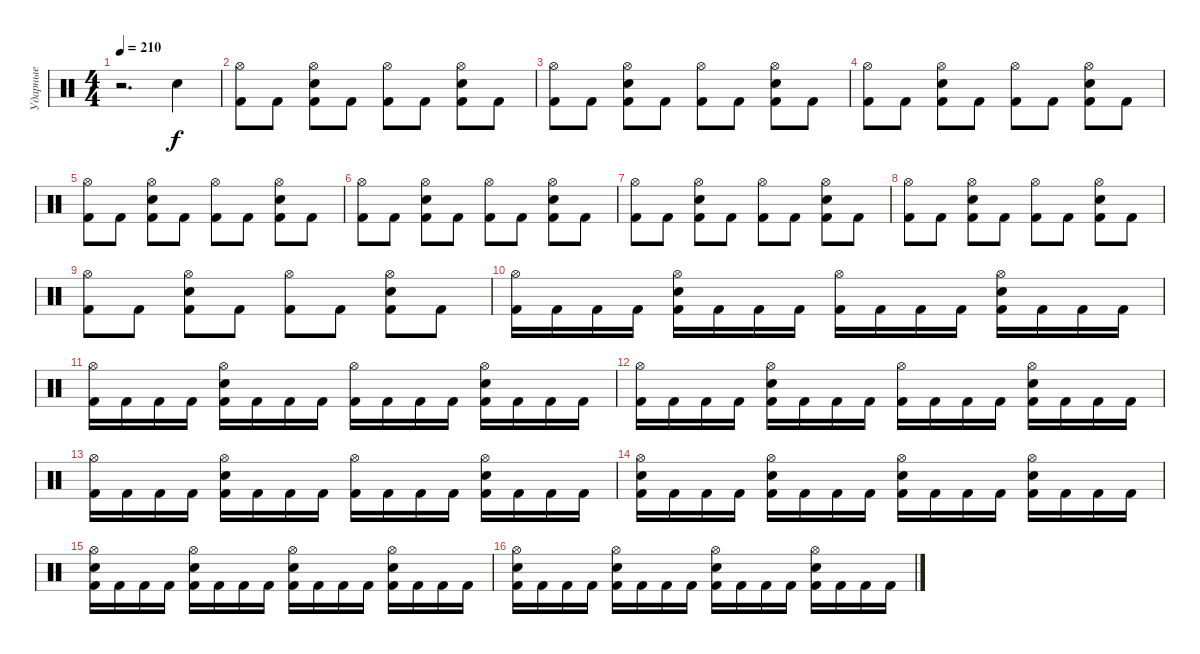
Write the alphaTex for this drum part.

\track ("Ударные" "Ударные") {instrument percussion}
\staff {score}
\articulation defaults
\ts (4 4)
\tempo 210
\clef neutral
\ks c
r.2{d dy f} "Electric Snare (hit)".4 |
("Kick (hit) 2" "Hi-Hat (open)").8 "Kick (hit) 2".8 ("Kick (hit) 2" "Electric Snare (hit)" "Hi-Hat (open)").8 "Kick (hit) 2".8 ("Kick (hit) 2" "Hi-Hat (open)").8 "Kick (hit) 2".8 ("Kick (hit) 2" "Hi-Hat (open)" "Electric Snare (hit)").8 "Kick (hit) 2".8 |
("Kick (hit) 2" "Hi-Hat (open)").8 "Kick (hit) 2".8 ("Kick (hit) 2" "Electric Snare (hit)" "Hi-Hat (open)").8 "Kick (hit) 2".8 ("Kick (hit) 2" "Hi-Hat (open)").8 "Kick (hit) 2".8 ("Kick (hit) 2" "Hi-Hat (open)" "Electric Snare (hit)").8 "Kick (hit) 2".8 |
("Kick (hit) 2" "Hi-Hat (open)").8 "Kick (hit) 2".8 ("Kick (hit) 2" "Electric Snare (hit)" "Hi-Hat (open)").8 "Kick (hit) 2".8 ("Kick (hit) 2" "Hi-Hat (open)").8 "Kick (hit) 2".8 ("Kick (hit) 2" "Hi-Hat (open)" "Electric Snare (hit)").8 "Kick (hit) 2".8 |
("Kick (hit) 2" "Hi-Hat (open)").8 "Kick (hit) 2".8 ("Kick (hit) 2" "Electric Snare (hit)" "Hi-Hat (open)").8 "Kick (hit) 2".8 ("Kick (hit) 2" "Hi-Hat (open)").8 "Kick (hit) 2".8 ("Kick (hit) 2" "Hi-Hat (open)" "Electric Snare (hit)").8 "Kick (hit) 2".8 |
("Kick (hit) 2" "Hi-Hat (open)").8 "Kick (hit) 2".8 ("Kick (hit) 2" "Electric Snare (hit)" "Hi-Hat (open)").8 "Kick (hit) 2".8 ("Kick (hit) 2" "Hi-Hat (open)").8 "Kick (hit) 2".8 ("Kick (hit) 2" "Hi-Hat (open)" "Electric Snare (hit)").8 "Kick (hit) 2".8 |
("Kick (hit) 2" "Hi-Hat (open)").8 "Kick (hit) 2".8 ("Kick (hit) 2" "Electric Snare (hit)" "Hi-Hat (open)").8 "Kick (hit) 2".8 ("Kick (hit) 2" "Hi-Hat (open)").8 "Kick (hit) 2".8 ("Kick (hit) 2" "Hi-Hat (open)" "Electric Snare (hit)").8 "Kick (hit) 2".8 |
("Kick (hit) 2" "Hi-Hat (open)").8 "Kick (hit) 2".8 ("Kick (hit) 2" "Electric Snare (hit)" "Hi-Hat (open)").8 "Kick (hit) 2".8 ("Kick (hit) 2" "Hi-Hat (open)").8 "Kick (hit) 2".8 ("Kick (hit) 2" "Hi-Hat (open)" "Electric Snare (hit)").8 "Kick (hit) 2".8 |
("Kick (hit) 2" "Hi-Hat (open)").8 "Kick (hit) 2".8 ("Kick (hit) 2" "Electric Snare (hit)" "Hi-Hat (open)").8 "Kick (hit) 2".8 ("Kick (hit) 2" "Hi-Hat (open)").8 "Kick (hit) 2".8 ("Kick (hit) 2" "Hi-Hat (open)" "Electric Snare (hit)").8 "Kick (hit) 2".8 |
("Kick (hit) 2" "Hi-Hat (open)").16 "Kick (hit) 2".16 "Kick (hit) 2".16 "Kick (hit) 2".16 ("Kick (hit) 2" "Electric Snare (hit)" "Hi-Hat (open)").16 "Kick (hit) 2".16 "Kick (hit) 2".16 "Kick (hit) 2".16 ("Kick (hit) 2" "Hi-Hat (open)").16 "Kick (hit) 2".16 "Kick (hit) 2".16 "Kick (hit) 2".16 ("Kick (hit) 2" "Electric Snare (hit)" "Hi-Hat (open)").16 "Kick (hit) 2".16 "Kick (hit) 2".16 "Kick (hit) 2".16 |
("Kick (hit) 2" "Hi-Hat (open)").16 "Kick (hit) 2".16 "Kick (hit) 2".16 "Kick (hit) 2".16 ("Kick (hit) 2" "Electric Snare (hit)" "Hi-Hat (open)").16 "Kick (hit) 2".16 "Kick (hit) 2".16 "Kick (hit) 2".16 ("Kick (hit) 2" "Hi-Hat (open)").16 "Kick (hit) 2".16 "Kick (hit) 2".16 "Kick (hit) 2".16 ("Kick (hit) 2" "Electric Snare (hit)" "Hi-Hat (open)").16 "Kick (hit) 2".16 "Kick (hit) 2".16 "Kick (hit) 2".16 |
("Kick (hit) 2" "Hi-Hat (open)").16 "Kick (hit) 2".16 "Kick (hit) 2".16 "Kick (hit) 2".16 ("Kick (hit) 2" "Electric Snare (hit)" "Hi-Hat (open)").16 "Kick (hit) 2".16 "Kick (hit) 2".16 "Kick (hit) 2".16 ("Kick (hit) 2" "Hi-Hat (open)").16 "Kick (hit) 2".16 "Kick (hit) 2".16 "Kick (hit) 2".16 ("Kick (hit) 2" "Electric Snare (hit)" "Hi-Hat (open)").16 "Kick (hit) 2".16 "Kick (hit) 2".16 "Kick (hit) 2".16 |
("Kick (hit) 2" "Hi-Hat (open)").16 "Kick (hit) 2".16 "Kick (hit) 2".16 "Kick (hit) 2".16 ("Kick (hit) 2" "Electric Snare (hit)" "Hi-Hat (open)").16 "Kick (hit) 2".16 "Kick (hit) 2".16 "Kick (hit) 2".16 ("Kick (hit) 2" "Hi-Hat (open)").16 "Kick (hit) 2".16 "Kick (hit) 2".16 "Kick (hit) 2".16 ("Kick (hit) 2" "Electric Snare (hit)" "Hi-Hat (open)").16 "Kick (hit) 2".16 "Kick (hit) 2".16 "Kick (hit) 2".16 |
("Kick (hit) 2" "Hi-Hat (open)" "Electric Snare (hit)").16 "Kick (hit) 2".16 "Kick (hit) 2".16 "Kick (hit) 2".16 ("Kick (hit) 2" "Electric Snare (hit)" "Hi-Hat (open)").16 "Kick (hit) 2".16 "Kick (hit) 2".16 "Kick (hit) 2".16 ("Kick (hit) 2" "Hi-Hat (open)" "Electric Snare (hit)").16 "Kick (hit) 2".16 "Kick (hit) 2".16 "Kick (hit) 2".16 ("Kick (hit) 2" "Electric Snare (hit)" "Hi-Hat (open)").16 "Kick (hit) 2".16 "Kick (hit) 2".16 "Kick (hit) 2".16 |
("Kick (hit) 2" "Hi-Hat (open)" "Electric Snare (hit)").16 "Kick (hit) 2".16 "Kick (hit) 2".16 "Kick (hit) 2".16 ("Kick (hit) 2" "Electric Snare (hit)" "Hi-Hat (open)").16 "Kick (hit) 2".16 "Kick (hit) 2".16 "Kick (hit) 2".16 ("Kick (hit) 2" "Hi-Hat (open)" "Electric Snare (hit)").16 "Kick (hit) 2".16 "Kick (hit) 2".16 "Kick (hit) 2".16 ("Kick (hit) 2" "Electric Snare (hit)" "Hi-Hat (open)").16 "Kick (hit) 2".16 "Kick (hit) 2".16 "Kick (hit) 2".16 |
("Kick (hit) 2" "Hi-Hat (open)" "Electric Snare (hit)").16 "Kick (hit) 2".16 "Kick (hit) 2".16 "Kick (hit) 2".16 ("Kick (hit) 2" "Electric Snare (hit)" "Hi-Hat (open)").16 "Kick (hit) 2".16 "Kick (hit) 2".16 "Kick (hit) 2".16 ("Kick (hit) 2" "Hi-Hat (open)" "Electric Snare (hit)").16 "Kick (hit) 2".16 "Kick (hit) 2".16 "Kick (hit) 2".16 ("Kick (hit) 2" "Electric Snare (hit)" "Hi-Hat (open)").16 "Kick (hit) 2".16 "Kick (hit) 2".16 "Kick (hit) 2".16
